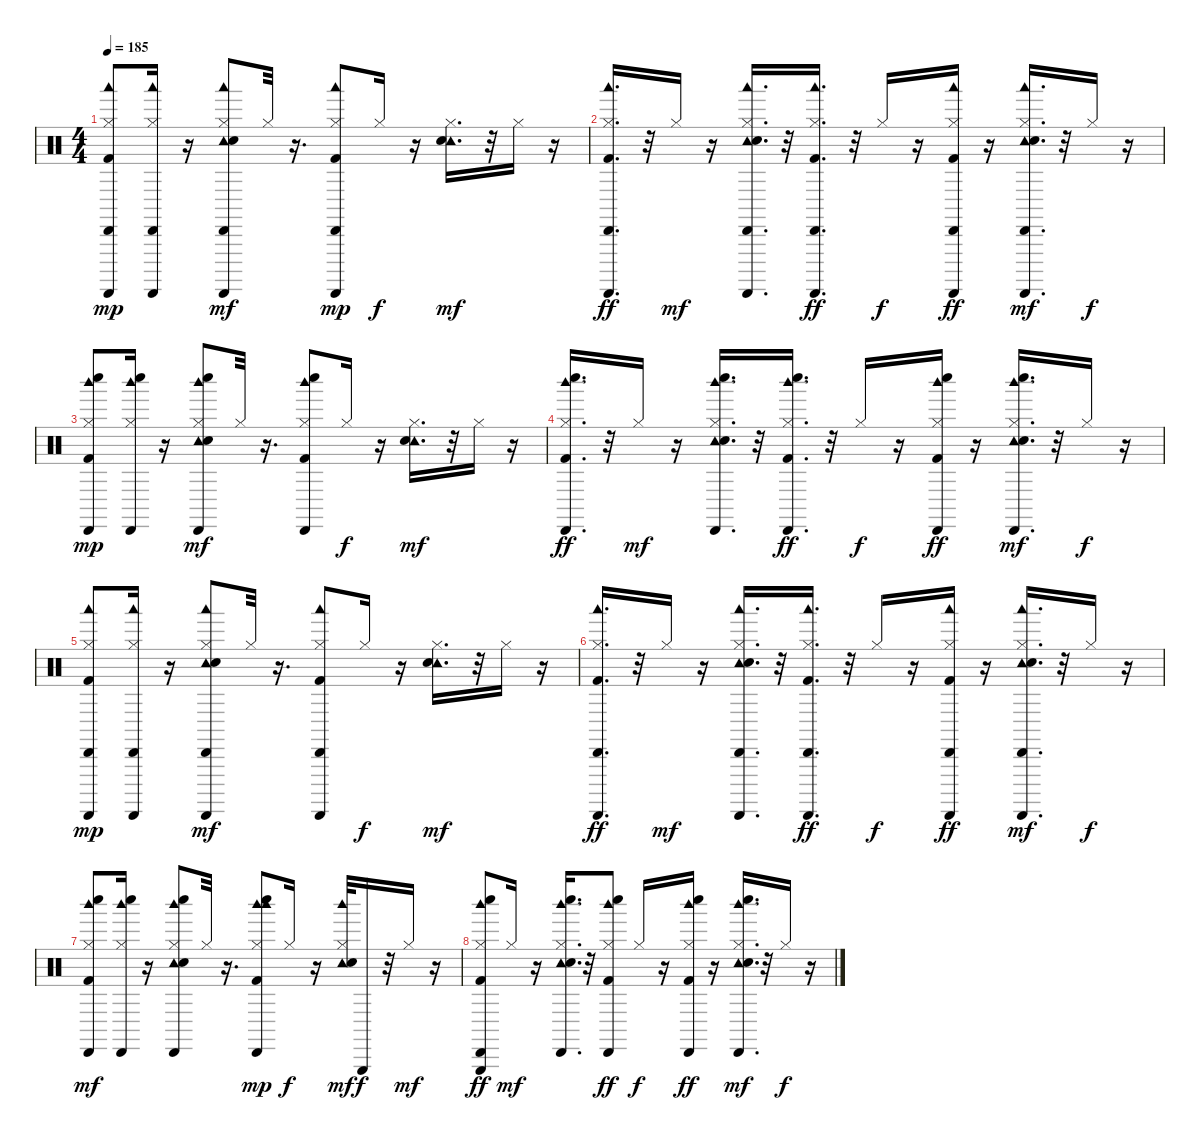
\track "" {instrument percussion}
\staff {score}
\articulation defaults
\ts (4 4)
\tempo 185
\clef neutral
\ks c
("Cabasa (hit)" "Woodblock low (hit)" "Guiro (scrap-return)" "Hi-Hat (closed)" "Kick (hit) 2").8{dy mp} ("Cabasa (hit)" "Guiro (scrap-return)" "Woodblock low (hit)" "Hi-Hat (closed)").16 r.16 ("Cabasa (hit)" "Woodblock low (hit)" "Guiro (scrap-return)" "Tambourine (hit)" "Hi-Hat (closed)" "Snare (hit) 2").8{dy mf} "Hi-Hat (closed)".32 r.16{d} ("Woodblock low (hit)" "Cabasa (hit)" "Guiro (scrap-return)" "Hi-Hat (closed)" "Kick (hit) 2").8{dy mp} "Hi-Hat (closed)".16{dy f} r.16 ("Tambourine (hit)" "Hi-Hat (closed)" "Snare (hit) 2").16{d dy mf} r.32 "Hi-Hat (closed)".16 r.16 |
("Cabasa (hit)" "Guiro (scrap-return)" "Woodblock low (hit)" "Hi-Hat (closed)" "Kick (hit) 2").16{d dy ff} r.32 "Hi-Hat (closed)".16{dy mf} r.16 ("Guiro (scrap-return)" "Cabasa (hit)" "Woodblock low (hit)" "Tambourine (hit)" "Hi-Hat (closed)" "Snare (hit) 2").16{d} r.32 ("Cabasa (hit)" "Woodblock low (hit)" "Guiro (scrap-return)" "Hi-Hat (closed)" "Kick (hit) 2").16{d dy ff} r.32 "Hi-Hat (closed)".16{dy f} r.16 ("Cabasa (hit)" "Woodblock low (hit)" "Guiro (scrap-return)" "Hi-Hat (closed)" "Kick (hit) 2").16{dy ff} r.16 ("Woodblock low (hit)" "Cabasa (hit)" "Guiro (scrap-return)" "Tambourine (hit)" "Hi-Hat (closed)" "Snare (hit) 2").16{d dy mf} r.32 "Hi-Hat (closed)".16{dy f} r.16 |
("Whistle low (hit)" "Woodblock high (hit)" "Cabasa (hit)" "Hi-Hat (closed)" "Kick (hit) 2").8{dy mp} ("Cabasa (hit)" "Woodblock high (hit)" "Whistle low (hit)" "Hi-Hat (closed)").16 r.16 ("Whistle low (hit)" "Cabasa (hit)" "Woodblock high (hit)" "Tambourine (hit)" "Hi-Hat (closed)" "Snare (hit) 2").8{dy mf} "Hi-Hat (closed)".32 r.16{d} ("Cabasa (hit)" "Woodblock high (hit)" "Whistle low (hit)" "Hi-Hat (closed)" "Kick (hit) 2").8 "Hi-Hat (closed)".16{dy f} r.16 ("Tambourine (hit)" "Hi-Hat (closed)" "Snare (hit) 2").16{d dy mf} r.32 "Hi-Hat (closed)".16 r.16 |
("Cabasa (hit)" "Whistle low (hit)" "Woodblock high (hit)" "Hi-Hat (closed)" "Kick (hit) 2").16{d dy ff} r.32 "Hi-Hat (closed)".16{dy mf} r.16 ("Whistle low (hit)" "Cabasa (hit)" "Woodblock high (hit)" "Tambourine (hit)" "Hi-Hat (closed)" "Snare (hit) 2").16{d} r.32 ("Whistle low (hit)" "Cabasa (hit)" "Woodblock high (hit)" "Hi-Hat (closed)" "Kick (hit) 2").16{d dy ff} r.32 "Hi-Hat (closed)".16{dy f} r.16 ("Cabasa (hit)" "Whistle low (hit)" "Woodblock high (hit)" "Hi-Hat (closed)" "Kick (hit) 2").16{dy ff} r.16 ("Cabasa (hit)" "Whistle low (hit)" "Woodblock high (hit)" "Tambourine (hit)" "Hi-Hat (closed)" "Snare (hit) 2").16{d dy mf} r.32 "Hi-Hat (closed)".16{dy f} r.16 |
("Cabasa (hit)" "Woodblock low (hit)" "Guiro (scrap-return)" "Hi-Hat (closed)" "Kick (hit) 2").8{dy mp} ("Woodblock low (hit)" "Cabasa (hit)" "Guiro (scrap-return)" "Hi-Hat (closed)").16 r.16 ("Woodblock low (hit)" "Guiro (scrap-return)" "Cabasa (hit)" "Tambourine (hit)" "Hi-Hat (closed)" "Snare (hit) 2").8{dy mf} "Hi-Hat (closed)".32 r.16{d} ("Woodblock low (hit)" "Guiro (scrap-return)" "Cabasa (hit)" "Hi-Hat (closed)" "Kick (hit) 2").8 "Hi-Hat (closed)".16{dy f} r.16 ("Tambourine (hit)" "Hi-Hat (closed)" "Snare (hit) 2").16{d dy mf} r.32 "Hi-Hat (closed)".16 r.16 |
("Cabasa (hit)" "Woodblock low (hit)" "Guiro (scrap-return)" "Hi-Hat (closed)" "Kick (hit) 2").16{d dy ff} r.32 "Hi-Hat (closed)".16{dy mf} r.16 ("Cabasa (hit)" "Woodblock low (hit)" "Guiro (scrap-return)" "Tambourine (hit)" "Hi-Hat (closed)" "Snare (hit) 2").16{d} r.32 ("Cabasa (hit)" "Woodblock low (hit)" "Guiro (scrap-return)" "Hi-Hat (closed)" "Kick (hit) 2").16{d dy ff} r.32 "Hi-Hat (closed)".16{dy f} r.16 ("Cabasa (hit)" "Woodblock low (hit)" "Guiro (scrap-return)" "Hi-Hat (closed)" "Kick (hit) 2").16{dy ff} r.16 ("Woodblock low (hit)" "Cabasa (hit)" "Guiro (scrap-return)" "Tambourine (hit)" "Hi-Hat (closed)" "Snare (hit) 2").16{d dy mf} r.32 "Hi-Hat (closed)".16{dy f} r.16 |
("Whistle low (hit)" "Cabasa (hit)" "Woodblock high (hit)" "Hi-Hat (closed)" "Kick (hit) 2").8{dy mf} ("Whistle low (hit)" "Cabasa (hit)" "Woodblock high (hit)" "Hi-Hat (closed)").16 r.16 ("Cabasa (hit)" "Whistle low (hit)" "Woodblock high (hit)" "Tambourine (hit)" "Hi-Hat (closed)" "Snare (hit) 2").8 "Hi-Hat (closed)".32 r.16{d} ("Woodblock high (hit)" "Whistle low (hit)" "Cabasa (hit)" "Hi-Hat (closed)" "Kick (hit) 2" "Woodblock high (hit)").8{dy mp} "Hi-Hat (closed)".16{dy f} r.16 ("Tambourine (hit)" "Hi-Hat (closed)" "Snare (hit) 2" "Woodblock high (hit)").32{dy mf} "Triangle (hit)".16{dy f} r.32 "Hi-Hat (closed)".16{dy mf} r.16 |
("Cabasa (hit)" "Whistle low (hit)" "Woodblock high (hit)" "Hi-Hat (closed)" "Kick (hit) 2" "Triangle (hit)").8{dy ff} "Hi-Hat (closed)".16{dy mf} r.16 ("Cabasa (hit)" "Whistle low (hit)" "Woodblock high (hit)" "Tambourine (hit)" "Hi-Hat (closed)" "Snare (hit) 2").16{d} r.32 ("Whistle low (hit)" "Cabasa (hit)" "Woodblock high (hit)" "Hi-Hat (closed)" "Kick (hit) 2").8{dy ff} "Hi-Hat (closed)".16{dy f} r.16 ("Cabasa (hit)" "Whistle low (hit)" "Woodblock high (hit)" "Hi-Hat (closed)" "Kick (hit) 2").16{dy ff} r.16 ("Whistle low (hit)" "Cabasa (hit)" "Woodblock high (hit)" "Tambourine (hit)" "Hi-Hat (closed)" "Snare (hit) 2").16{d dy mf} r.32 "Hi-Hat (closed)".16{dy f} r.16
